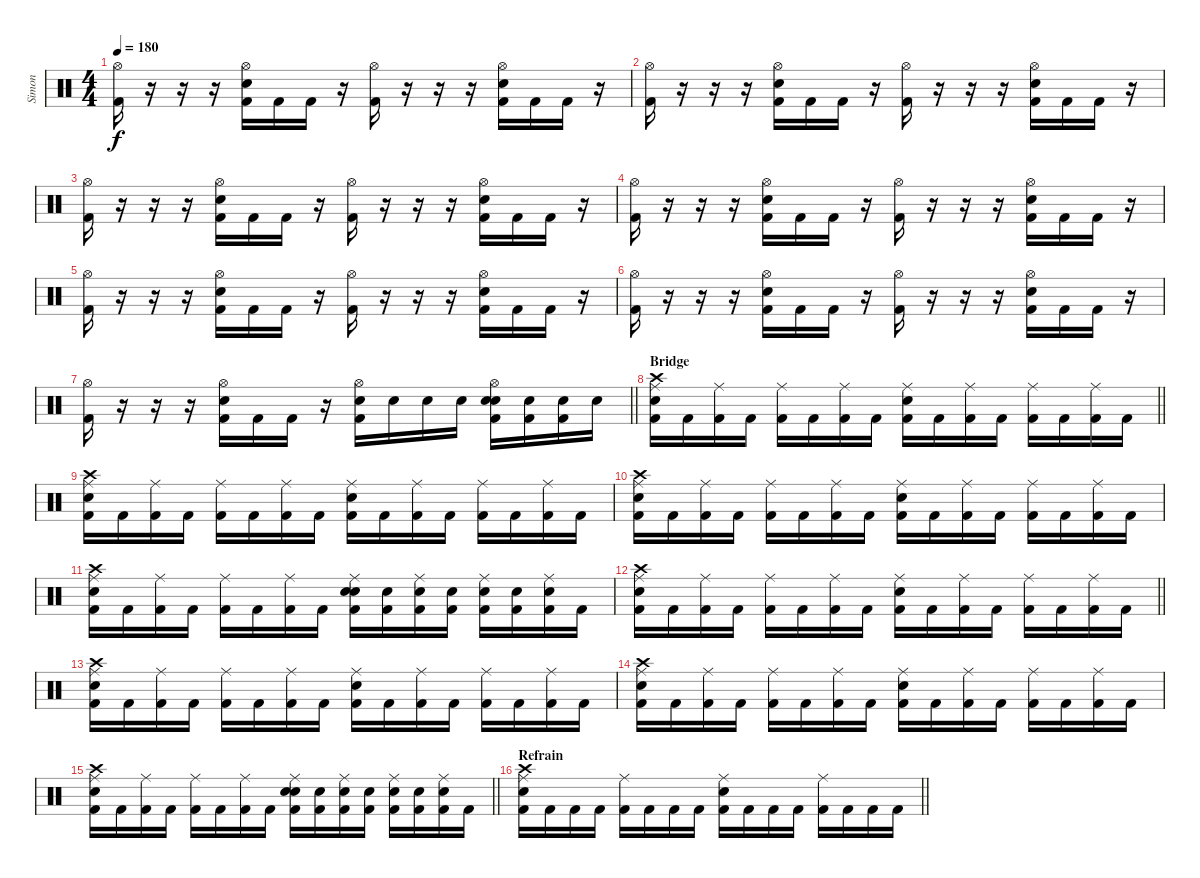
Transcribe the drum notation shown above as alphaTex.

\track ("Simon" "Simon") {instrument percussion}
\staff {score}
\articulation defaults
\ts (4 4)
\tempo 180
\clef neutral
\ks c
("Hi-Hat (open)" "Kick (hit) 2").16{dy f} r.16 r.16 r.16 ("Hi-Hat (open)" "Electric Snare (hit)" "Kick (hit) 2").16 "Kick (hit) 2".16 "Kick (hit) 2".16 r.16 ("Hi-Hat (open)" "Kick (hit) 2").16 r.16 r.16 r.16 ("Hi-Hat (open)" "Electric Snare (hit)" "Kick (hit) 2").16 "Kick (hit) 2".16 "Kick (hit) 2".16 r.16 |
("Hi-Hat (open)" "Kick (hit) 2").16 r.16 r.16 r.16 ("Hi-Hat (open)" "Electric Snare (hit)" "Kick (hit) 2").16 "Kick (hit) 2".16 "Kick (hit) 2".16 r.16 ("Hi-Hat (open)" "Kick (hit) 2").16 r.16 r.16 r.16 ("Hi-Hat (open)" "Electric Snare (hit)" "Kick (hit) 2").16 "Kick (hit) 2".16 "Kick (hit) 2".16 r.16 |
("Hi-Hat (open)" "Kick (hit) 2").16 r.16 r.16 r.16 ("Hi-Hat (open)" "Electric Snare (hit)" "Kick (hit) 2").16 "Kick (hit) 2".16 "Kick (hit) 2".16 r.16 ("Hi-Hat (open)" "Kick (hit) 2").16 r.16 r.16 r.16 ("Hi-Hat (open)" "Electric Snare (hit)" "Kick (hit) 2").16 "Kick (hit) 2".16 "Kick (hit) 2".16 r.16 |
("Hi-Hat (open)" "Kick (hit) 2").16 r.16 r.16 r.16 ("Hi-Hat (open)" "Electric Snare (hit)" "Kick (hit) 2").16 "Kick (hit) 2".16 "Kick (hit) 2".16 r.16 ("Hi-Hat (open)" "Kick (hit) 2").16 r.16 r.16 r.16 ("Hi-Hat (open)" "Electric Snare (hit)" "Kick (hit) 2").16 "Kick (hit) 2".16 "Kick (hit) 2".16 r.16 |
("Hi-Hat (open)" "Kick (hit) 2").16 r.16 r.16 r.16 ("Hi-Hat (open)" "Electric Snare (hit)" "Kick (hit) 2").16 "Kick (hit) 2".16 "Kick (hit) 2".16 r.16 ("Hi-Hat (open)" "Kick (hit) 2").16 r.16 r.16 r.16 ("Hi-Hat (open)" "Electric Snare (hit)" "Kick (hit) 2").16 "Kick (hit) 2".16 "Kick (hit) 2".16 r.16 |
("Hi-Hat (open)" "Kick (hit) 2").16 r.16 r.16 r.16 ("Hi-Hat (open)" "Electric Snare (hit)" "Kick (hit) 2").16 "Kick (hit) 2".16 "Kick (hit) 2".16 r.16 ("Hi-Hat (open)" "Kick (hit) 2").16 r.16 r.16 r.16 ("Hi-Hat (open)" "Electric Snare (hit)" "Kick (hit) 2").16 "Kick (hit) 2".16 "Kick (hit) 2".16 r.16 |
\barLineRight lightlight
("Hi-Hat (open)" "Kick (hit) 2").16 r.16 r.16 r.16 ("Hi-Hat (open)" "Electric Snare (hit)" "Kick (hit) 2").16 "Kick (hit) 2".16 "Kick (hit) 2".16 r.16 ("Hi-Hat (open)" "Electric Snare (hit)" "Kick (hit) 2").16 "Electric Snare (hit)".16 "Electric Snare (hit)".16 "Electric Snare (hit)".16 ("Hi-Hat (open)" "Electric Snare (hit)" "Electric Snare (hit)" "Kick (hit) 2").16 ("Electric Snare (hit)" "Kick (hit) 2").16 ("Electric Snare (hit)" "Kick (hit) 2").16 "Electric Snare (hit)".16 |
\section ("" "Bridge")
\barLineRight lightlight
("Electric Snare (hit)" "Crash high (hit)" "Ride (middle)" "Kick (hit) 2").16 "Kick (hit) 2".16 ("Ride (middle)" "Kick (hit) 2").16 "Kick (hit) 2".16 ("Ride (middle)" "Kick (hit) 2").16 "Kick (hit) 2".16 ("Ride (middle)" "Kick (hit) 2").16 "Kick (hit) 2".16 ("Electric Snare (hit)" "Ride (middle)" "Kick (hit) 2").16 "Kick (hit) 2".16 ("Ride (middle)" "Kick (hit) 2").16 "Kick (hit) 2".16 ("Ride (middle)" "Kick (hit) 2").16 "Kick (hit) 2".16 ("Ride (middle)" "Kick (hit) 2").16 "Kick (hit) 2".16 |
("Electric Snare (hit)" "Crash high (hit)" "Ride (middle)" "Kick (hit) 2").16 "Kick (hit) 2".16 ("Ride (middle)" "Kick (hit) 2").16 "Kick (hit) 2".16 ("Ride (middle)" "Kick (hit) 2").16 "Kick (hit) 2".16 ("Ride (middle)" "Kick (hit) 2").16 "Kick (hit) 2".16 ("Electric Snare (hit)" "Ride (middle)" "Kick (hit) 2").16 "Kick (hit) 2".16 ("Ride (middle)" "Kick (hit) 2").16 "Kick (hit) 2".16 ("Ride (middle)" "Kick (hit) 2").16 "Kick (hit) 2".16 ("Ride (middle)" "Kick (hit) 2").16 "Kick (hit) 2".16 |
("Electric Snare (hit)" "Crash high (hit)" "Ride (middle)" "Kick (hit) 2").16 "Kick (hit) 2".16 ("Ride (middle)" "Kick (hit) 2").16 "Kick (hit) 2".16 ("Ride (middle)" "Kick (hit) 2").16 "Kick (hit) 2".16 ("Ride (middle)" "Kick (hit) 2").16 "Kick (hit) 2".16 ("Electric Snare (hit)" "Ride (middle)" "Kick (hit) 2").16 "Kick (hit) 2".16 ("Ride (middle)" "Kick (hit) 2").16 "Kick (hit) 2".16 ("Ride (middle)" "Kick (hit) 2").16 "Kick (hit) 2".16 ("Ride (middle)" "Kick (hit) 2").16 "Kick (hit) 2".16 |
("Electric Snare (hit)" "Crash high (hit)" "Ride (middle)" "Kick (hit) 2").16 "Kick (hit) 2".16 ("Ride (middle)" "Kick (hit) 2").16 "Kick (hit) 2".16 ("Ride (middle)" "Kick (hit) 2").16 "Kick (hit) 2".16 ("Ride (middle)" "Kick (hit) 2").16 "Kick (hit) 2".16 ("Electric Snare (hit)" "Ride (middle)" "Electric Snare (hit)" "Kick (hit) 2").16 ("Electric Snare (hit)" "Kick (hit) 2").16 ("Ride (middle)" "Electric Snare (hit)" "Kick (hit) 2").16 ("Electric Snare (hit)" "Kick (hit) 2").16 ("Ride (middle)" "Electric Snare (hit)" "Kick (hit) 2").16 ("Electric Snare (hit)" "Kick (hit) 2").16 ("Ride (middle)" "Electric Snare (hit)" "Kick (hit) 2").16 "Kick (hit) 2".16 |
\barLineRight lightlight
("Electric Snare (hit)" "Crash high (hit)" "Ride (middle)" "Kick (hit) 2").16 "Kick (hit) 2".16 ("Ride (middle)" "Kick (hit) 2").16 "Kick (hit) 2".16 ("Ride (middle)" "Kick (hit) 2").16 "Kick (hit) 2".16 ("Ride (middle)" "Kick (hit) 2").16 "Kick (hit) 2".16 ("Electric Snare (hit)" "Ride (middle)" "Kick (hit) 2").16 "Kick (hit) 2".16 ("Ride (middle)" "Kick (hit) 2").16 "Kick (hit) 2".16 ("Ride (middle)" "Kick (hit) 2").16 "Kick (hit) 2".16 ("Ride (middle)" "Kick (hit) 2").16 "Kick (hit) 2".16 |
("Electric Snare (hit)" "Crash high (hit)" "Ride (middle)" "Kick (hit) 2").16 "Kick (hit) 2".16 ("Ride (middle)" "Kick (hit) 2").16 "Kick (hit) 2".16 ("Ride (middle)" "Kick (hit) 2").16 "Kick (hit) 2".16 ("Ride (middle)" "Kick (hit) 2").16 "Kick (hit) 2".16 ("Electric Snare (hit)" "Ride (middle)" "Kick (hit) 2").16 "Kick (hit) 2".16 ("Ride (middle)" "Kick (hit) 2").16 "Kick (hit) 2".16 ("Ride (middle)" "Kick (hit) 2").16 "Kick (hit) 2".16 ("Ride (middle)" "Kick (hit) 2").16 "Kick (hit) 2".16 |
("Electric Snare (hit)" "Crash high (hit)" "Ride (middle)" "Kick (hit) 2").16 "Kick (hit) 2".16 ("Ride (middle)" "Kick (hit) 2").16 "Kick (hit) 2".16 ("Ride (middle)" "Kick (hit) 2").16 "Kick (hit) 2".16 ("Ride (middle)" "Kick (hit) 2").16 "Kick (hit) 2".16 ("Electric Snare (hit)" "Ride (middle)" "Kick (hit) 2").16 "Kick (hit) 2".16 ("Ride (middle)" "Kick (hit) 2").16 "Kick (hit) 2".16 ("Ride (middle)" "Kick (hit) 2").16 "Kick (hit) 2".16 ("Ride (middle)" "Kick (hit) 2").16 "Kick (hit) 2".16 |
\barLineRight lightlight
("Electric Snare (hit)" "Crash high (hit)" "Ride (middle)" "Kick (hit) 2").16 "Kick (hit) 2".16 ("Ride (middle)" "Kick (hit) 2").16 "Kick (hit) 2".16 ("Ride (middle)" "Kick (hit) 2").16 "Kick (hit) 2".16 ("Ride (middle)" "Kick (hit) 2").16 "Kick (hit) 2".16 ("Electric Snare (hit)" "Ride (middle)" "Electric Snare (hit)" "Kick (hit) 2").16 ("Electric Snare (hit)" "Kick (hit) 2").16 ("Ride (middle)" "Electric Snare (hit)" "Kick (hit) 2").16 ("Electric Snare (hit)" "Kick (hit) 2").16 ("Ride (middle)" "Electric Snare (hit)" "Kick (hit) 2").16 ("Electric Snare (hit)" "Kick (hit) 2").16 ("Ride (middle)" "Electric Snare (hit)" "Kick (hit) 2").16 "Kick (hit) 2".16 |
\section ("" "Refrain")
\barLineRight lightlight
("Electric Snare (hit)" "Crash high (hit)" "Ride (middle)" "Kick (hit) 2").16 "Kick (hit) 2".16 "Kick (hit) 2".16 "Kick (hit) 2".16 ("Ride (middle)" "Kick (hit) 2").16 "Kick (hit) 2".16 "Kick (hit) 2".16 "Kick (hit) 2".16 ("Electric Snare (hit)" "Ride (middle)" "Kick (hit) 2").16 "Kick (hit) 2".16 "Kick (hit) 2".16 "Kick (hit) 2".16 ("Ride (middle)" "Kick (hit) 2").16 "Kick (hit) 2".16 "Kick (hit) 2".16 "Kick (hit) 2".16
